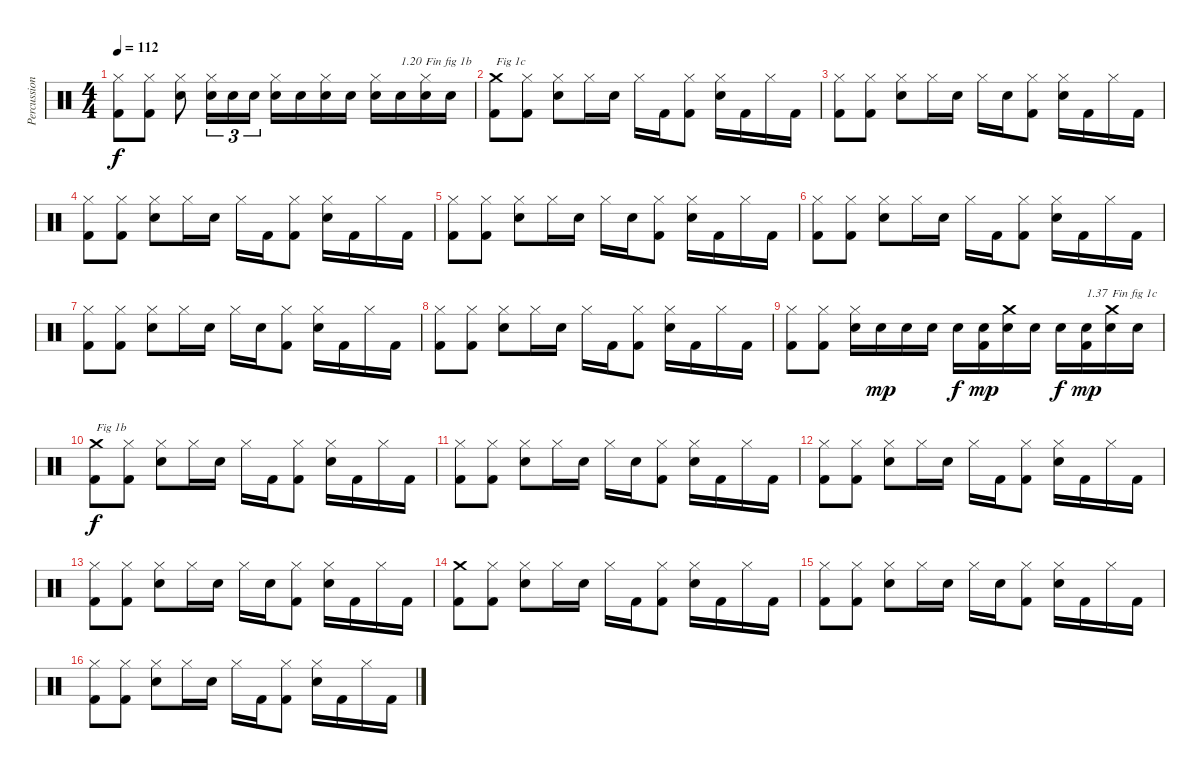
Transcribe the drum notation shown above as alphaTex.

\track ("Percussions" "Percussion") {instrument percussion}
\staff {score}
\articulation defaults
\ts (4 4)
\tempo 112
\clef neutral
\ks c
("Kick (hit) 2" "Hi-Hat (closed)").8{dy f} ("Kick (hit) 2" "Hi-Hat (closed)").8 ("Snare (hit) 2" "Hi-Hat (closed)").8 ("Snare (hit) 2" "Hi-Hat (closed)").16{tu (3 2)} "Snare (hit) 2".16{tu (3 2)} "Snare (hit) 2".16{tu (3 2)} ("Snare (hit) 2" "Hi-Hat (closed)").16 "Snare (hit) 2".16 ("Snare (hit) 2" "Hi-Hat (closed)").16 "Snare (hit) 2".16 ("Snare (hit) 2" "Hi-Hat (closed)").16 "Snare (hit) 2".16{txt "1.20"} ("Snare (hit) 2" "Hi-Hat (closed)").16{txt "Fin fig 1b"} "Snare (hit) 2".16 |
("Kick (hit) 2" "Crash medium (hit)").8{txt "Fig 1c"} ("Kick (hit) 2" "Hi-Hat (closed)").8 ("Snare (hit) 2" "Hi-Hat (closed)").8 "Hi-Hat (closed)".16 "Snare (hit) 2".16 "Hi-Hat (closed)".16 "Kick (hit) 2".16 ("Kick (hit) 2" "Hi-Hat (closed)").8 ("Snare (hit) 2" "Hi-Hat (closed)").16 "Kick (hit) 2".16 "Hi-Hat (closed)".16 "Kick (hit) 2".16 |
("Kick (hit) 2" "Hi-Hat (closed)").8 ("Kick (hit) 2" "Hi-Hat (closed)").8 ("Snare (hit) 2" "Hi-Hat (closed)").8 "Hi-Hat (closed)".16 "Snare (hit) 2".16 "Hi-Hat (closed)".16 "Snare (hit) 2".16 ("Kick (hit) 2" "Hi-Hat (closed)").8 ("Snare (hit) 2" "Hi-Hat (closed)").16 "Kick (hit) 2".16 "Hi-Hat (closed)".16 "Kick (hit) 2".16 |
("Kick (hit) 2" "Hi-Hat (closed)").8 ("Kick (hit) 2" "Hi-Hat (closed)").8 ("Snare (hit) 2" "Hi-Hat (closed)").8 "Hi-Hat (closed)".16 "Snare (hit) 2".16 "Hi-Hat (closed)".16 "Kick (hit) 2".16 ("Kick (hit) 2" "Hi-Hat (closed)").8 ("Snare (hit) 2" "Hi-Hat (closed)").16 "Kick (hit) 2".16 "Hi-Hat (closed)".16 "Kick (hit) 2".16 |
("Kick (hit) 2" "Hi-Hat (closed)").8 ("Kick (hit) 2" "Hi-Hat (closed)").8 ("Snare (hit) 2" "Hi-Hat (closed)").8 "Hi-Hat (closed)".16 "Snare (hit) 2".16 "Hi-Hat (closed)".16 "Snare (hit) 2".16 ("Kick (hit) 2" "Hi-Hat (closed)").8 ("Snare (hit) 2" "Hi-Hat (closed)").16 "Kick (hit) 2".16 "Hi-Hat (closed)".16 "Kick (hit) 2".16 |
("Kick (hit) 2" "Hi-Hat (closed)").8 ("Kick (hit) 2" "Hi-Hat (closed)").8 ("Snare (hit) 2" "Hi-Hat (closed)").8 "Hi-Hat (closed)".16 "Snare (hit) 2".16 "Hi-Hat (closed)".16 "Kick (hit) 2".16 ("Kick (hit) 2" "Hi-Hat (closed)").8 ("Snare (hit) 2" "Hi-Hat (closed)").16 "Kick (hit) 2".16 "Hi-Hat (closed)".16 "Kick (hit) 2".16 |
("Kick (hit) 2" "Hi-Hat (closed)").8 ("Kick (hit) 2" "Hi-Hat (closed)").8 ("Snare (hit) 2" "Hi-Hat (closed)").8 "Hi-Hat (closed)".16 "Snare (hit) 2".16 "Hi-Hat (closed)".16 "Snare (hit) 2".16 ("Kick (hit) 2" "Hi-Hat (closed)").8 ("Snare (hit) 2" "Hi-Hat (closed)").16 "Kick (hit) 2".16 "Hi-Hat (closed)".16 "Kick (hit) 2".16 |
("Kick (hit) 2" "Hi-Hat (closed)").8 ("Kick (hit) 2" "Hi-Hat (closed)").8 ("Snare (hit) 2" "Hi-Hat (closed)").8 "Hi-Hat (closed)".16 "Snare (hit) 2".16 "Hi-Hat (closed)".16 "Kick (hit) 2".16 ("Kick (hit) 2" "Hi-Hat (closed)").8 ("Snare (hit) 2" "Hi-Hat (closed)").16 "Kick (hit) 2".16 "Hi-Hat (closed)".16 "Kick (hit) 2".16 |
("Kick (hit) 2" "Hi-Hat (closed)").8 ("Kick (hit) 2" "Hi-Hat (closed)").8 ("Snare (hit) 2" "Hi-Hat (closed)").16 "Snare (hit) 2".16{dy mp} "Snare (hit) 2".16 "Snare (hit) 2".16 "Snare (hit) 2".16{dy f} ("Kick (hit) 2" "Snare (hit) 2").16{dy mp} ("Snare (hit) 2" "Crash medium (hit)").16 "Snare (hit) 2".16 "Snare (hit) 2".16{dy f} ("Kick (hit) 2" "Snare (hit) 2").16{txt "1.37" dy mp} ("Snare (hit) 2" "Crash medium (hit)").16{txt "Fin fig 1c"} "Snare (hit) 2".16 |
("Kick (hit) 2" "Crash medium (hit)").8{txt "Fig 1b" dy f} ("Kick (hit) 2" "Hi-Hat (closed)").8 ("Snare (hit) 2" "Hi-Hat (closed)").8 "Hi-Hat (closed)".16 "Snare (hit) 2".16 "Hi-Hat (closed)".16 "Kick (hit) 2".16 ("Kick (hit) 2" "Hi-Hat (closed)").8 ("Snare (hit) 2" "Hi-Hat (closed)").16 "Kick (hit) 2".16 "Hi-Hat (closed)".16 "Kick (hit) 2".16 |
("Kick (hit) 2" "Hi-Hat (closed)").8 ("Kick (hit) 2" "Hi-Hat (closed)").8 ("Snare (hit) 2" "Hi-Hat (closed)").8 "Hi-Hat (closed)".16 "Snare (hit) 2".16 "Hi-Hat (closed)".16 "Snare (hit) 2".16 ("Kick (hit) 2" "Hi-Hat (closed)").8 ("Snare (hit) 2" "Hi-Hat (closed)").16 "Kick (hit) 2".16 "Hi-Hat (closed)".16 "Kick (hit) 2".16 |
("Kick (hit) 2" "Hi-Hat (closed)").8 ("Kick (hit) 2" "Hi-Hat (closed)").8 ("Snare (hit) 2" "Hi-Hat (closed)").8 "Hi-Hat (closed)".16 "Snare (hit) 2".16 "Hi-Hat (closed)".16 "Kick (hit) 2".16 ("Kick (hit) 2" "Hi-Hat (closed)").8 ("Snare (hit) 2" "Hi-Hat (closed)").16 "Kick (hit) 2".16 "Hi-Hat (closed)".16 "Kick (hit) 2".16 |
("Kick (hit) 2" "Hi-Hat (closed)").8 ("Kick (hit) 2" "Hi-Hat (closed)").8 ("Snare (hit) 2" "Hi-Hat (closed)").8 "Hi-Hat (closed)".16 "Snare (hit) 2".16 "Hi-Hat (closed)".16 "Snare (hit) 2".16 ("Kick (hit) 2" "Hi-Hat (closed)").8 ("Snare (hit) 2" "Hi-Hat (closed)").16 "Kick (hit) 2".16 "Hi-Hat (closed)".16 "Kick (hit) 2".16 |
("Kick (hit) 2" "Crash medium (hit)").8 ("Kick (hit) 2" "Hi-Hat (closed)").8 ("Snare (hit) 2" "Hi-Hat (closed)").8 "Hi-Hat (closed)".16 "Snare (hit) 2".16 "Hi-Hat (closed)".16 "Kick (hit) 2".16 ("Kick (hit) 2" "Hi-Hat (closed)").8 ("Snare (hit) 2" "Hi-Hat (closed)").16 "Kick (hit) 2".16 "Hi-Hat (closed)".16 "Kick (hit) 2".16 |
("Kick (hit) 2" "Hi-Hat (closed)").8 ("Kick (hit) 2" "Hi-Hat (closed)").8 ("Snare (hit) 2" "Hi-Hat (closed)").8 "Hi-Hat (closed)".16 "Snare (hit) 2".16 "Hi-Hat (closed)".16 "Snare (hit) 2".16 ("Kick (hit) 2" "Hi-Hat (closed)").8 ("Snare (hit) 2" "Hi-Hat (closed)").16 "Kick (hit) 2".16 "Hi-Hat (closed)".16 "Kick (hit) 2".16 |
("Kick (hit) 2" "Hi-Hat (closed)").8 ("Kick (hit) 2" "Hi-Hat (closed)").8 ("Snare (hit) 2" "Hi-Hat (closed)").8 "Hi-Hat (closed)".16 "Snare (hit) 2".16 "Hi-Hat (closed)".16 "Kick (hit) 2".16 ("Kick (hit) 2" "Hi-Hat (closed)").8 ("Snare (hit) 2" "Hi-Hat (closed)").16 "Kick (hit) 2".16 "Hi-Hat (closed)".16 "Kick (hit) 2".16
